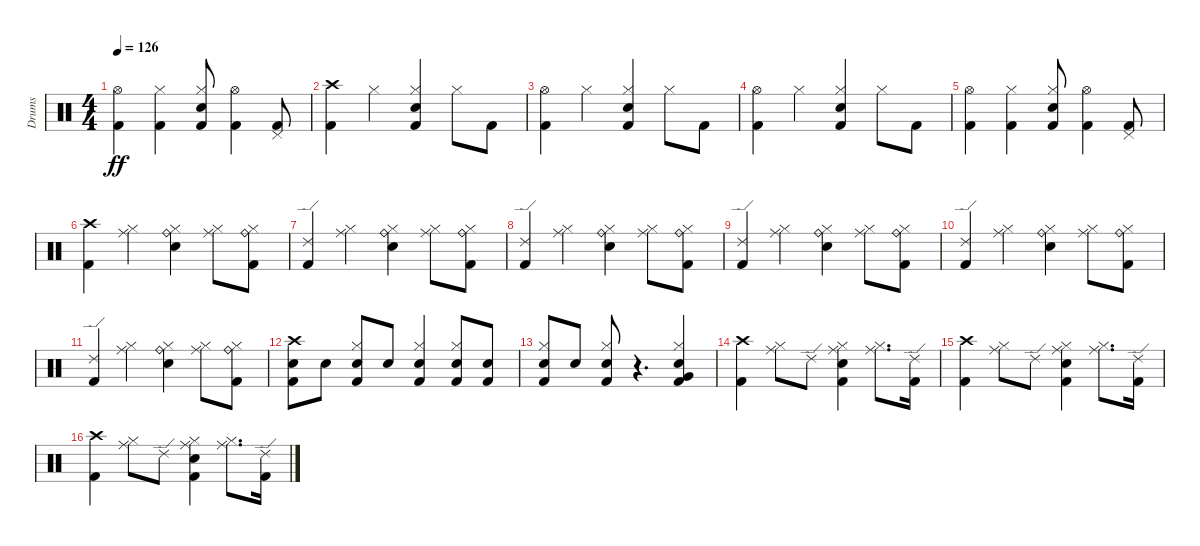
\track ("Drums" "Drums") {instrument percussion}
\staff {score}
\articulation defaults
\ts (4 4)
\tempo 126
\clef neutral
\ks c
("Hi-Hat (open)" "Kick (hit) 2").4{dy ff} ("Hi-Hat (closed)" "Kick (hit) 2").4 ("Hi-Hat (closed)" "Snare (hit) 2" "Kick (hit) 2").8 ("Hi-Hat (open)" "Kick (hit) 2").4 ("Pedal Hi-Hat (hit)" "Kick (hit) 2").8 |
("Crash high (hit)" "Kick (hit) 2").4 "Hi-Hat (closed)".4 ("Hi-Hat (closed)" "Snare (hit) 2" "Kick (hit) 2").4 "Hi-Hat (closed)".8 "Kick (hit) 2".8 |
("Hi-Hat (open)" "Kick (hit) 2").4 "Hi-Hat (closed)".4 ("Hi-Hat (closed)" "Snare (hit) 2" "Kick (hit) 2").4 "Hi-Hat (closed)".8 "Kick (hit) 2".8 |
("Hi-Hat (open)" "Kick (hit) 2").4 "Hi-Hat (closed)".4 ("Hi-Hat (closed)" "Snare (hit) 2" "Kick (hit) 2").4 "Hi-Hat (closed)".8 "Kick (hit) 2".8 |
("Hi-Hat (open)" "Kick (hit) 2").4 ("Hi-Hat (closed)" "Kick (hit) 2").4 ("Hi-Hat (closed)" "Snare (hit) 2" "Kick (hit) 2").8 ("Hi-Hat (open)" "Kick (hit) 2").4 ("Pedal Hi-Hat (hit)" "Kick (hit) 2").8 |
("Crash high (hit)" "Kick (hit) 2").4 ("Ride (middle)" "Hi-Hat (closed)").4 ("Ride (bell)" "Hi-Hat (closed)" "Snare (hit) 2").4 ("Ride (middle)" "Hi-Hat (closed)").8 ("Ride (bell)" "Hi-Hat (closed)" "Kick (hit) 2").8 |
("Ride (edge) 2" "Kick (hit) 2").4 ("Ride (middle)" "Hi-Hat (closed)").4 ("Ride (bell)" "Hi-Hat (closed)" "Snare (hit) 2").4 ("Ride (middle)" "Hi-Hat (closed)").8 ("Ride (bell)" "Hi-Hat (closed)" "Kick (hit) 2").8 |
("Ride (edge) 2" "Kick (hit) 2").4 ("Ride (middle)" "Hi-Hat (closed)").4 ("Ride (bell)" "Hi-Hat (closed)" "Snare (hit) 2").4 ("Ride (middle)" "Hi-Hat (closed)").8 ("Ride (bell)" "Hi-Hat (closed)" "Kick (hit) 2").8 |
("Ride (edge) 2" "Kick (hit) 2").4 ("Ride (middle)" "Hi-Hat (closed)").4 ("Ride (bell)" "Hi-Hat (closed)" "Snare (hit) 2").4 ("Ride (middle)" "Hi-Hat (closed)").8 ("Ride (bell)" "Hi-Hat (closed)" "Kick (hit) 2").8 |
("Ride (edge) 2" "Kick (hit) 2").4 ("Ride (middle)" "Hi-Hat (closed)").4 ("Ride (bell)" "Hi-Hat (closed)" "Snare (hit) 2").4 ("Ride (middle)" "Hi-Hat (closed)").8 ("Ride (bell)" "Hi-Hat (closed)" "Kick (hit) 2").8 |
("Ride (edge) 2" "Kick (hit) 2").4 ("Ride (middle)" "Hi-Hat (closed)").4 ("Ride (bell)" "Hi-Hat (closed)" "Snare (hit) 2").4 ("Ride (middle)" "Hi-Hat (closed)").8 ("Ride (bell)" "Hi-Hat (closed)" "Kick (hit) 2").8 |
("Crash high (hit)" "Snare (hit) 2" "Kick (hit) 2").8 "Snare (hit) 2".8 ("Hi-Hat (closed)" "Snare (hit) 2" "Kick (hit) 2").8 "Snare (hit) 2".8 ("Hi-Hat (closed)" "Snare (hit) 2" "Kick (hit) 2").4 ("Hi-Hat (closed)" "Snare (hit) 2" "Kick (hit) 2").8 ("Snare (hit) 2" "Kick (hit) 2").8 |
("Hi-Hat (closed)" "Snare (hit) 2" "Kick (hit) 2").8 "Snare (hit) 2".8 ("Hi-Hat (closed)" "Snare (hit) 2" "Kick (hit) 2").8 r.4{d} ("Hi-Hat (closed)" "Snare (hit) 2" "Very Low Tom (hit)" "Kick (hit) 2").4 |
("Crash high (hit)" "Kick (hit) 2").4 ("Ride (middle)" "Hi-Hat (closed)").8 "Ride (edge) 2".8 ("Ride (middle)" "Hi-Hat (closed)" "Snare (hit) 2" "Kick (hit) 2").4 ("Ride (middle)" "Hi-Hat (closed)").8{d} ("Ride (edge) 2" "Kick (hit) 2").16 |
("Crash high (hit)" "Kick (hit) 2").4 ("Ride (middle)" "Hi-Hat (closed)").8 "Ride (edge) 2".8 ("Ride (middle)" "Hi-Hat (closed)" "Snare (hit) 2" "Kick (hit) 2").4 ("Ride (middle)" "Hi-Hat (closed)").8{d} ("Ride (edge) 2" "Kick (hit) 2").16 |
("Crash high (hit)" "Kick (hit) 2").4 ("Ride (middle)" "Hi-Hat (closed)").8 "Ride (edge) 2".8 ("Ride (middle)" "Hi-Hat (closed)" "Snare (hit) 2" "Kick (hit) 2").4 ("Ride (middle)" "Hi-Hat (closed)").8{d} ("Ride (edge) 2" "Kick (hit) 2").16
